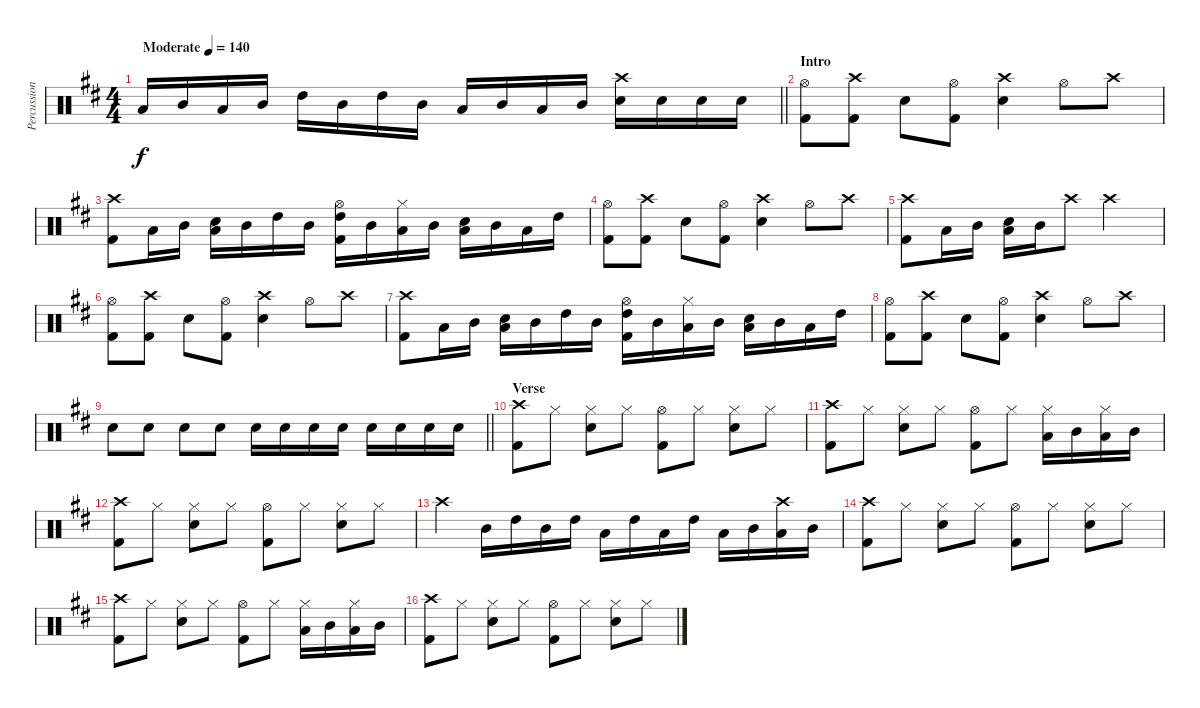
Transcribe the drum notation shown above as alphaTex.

\track ("Percussion" "Percussion") {instrument percussion}
\staff {score}
\articulation defaults
\ts (4 4)
\tempo (140 "Moderate")
\clef neutral
\barLineRight lightlight
\ks d "Low Tom (hit)".16{dy f} "Mid Tom (hit)".16 "Low Tom (hit)".16 "Mid Tom (hit)".16 "High Tom (hit)".16 "Mid Tom (hit)".16 "High Tom (hit)".16 "Mid Tom (hit)".16 "Low Tom (hit)".16 "Mid Tom (hit)".16 "Low Tom (hit)".16 "Mid Tom (hit)".16
("Crash high (hit)" "Snare (hit) 2").16 "Snare (hit) 2".16 "Snare (hit) 2".16 "Snare (hit) 2".16 |
\section ("" "Intro")
("Hi-Hat (open)" "Kick (hit) 2").8 ("Crash high (hit)" "Kick (hit) 2").8 "Snare (hit) 2".8 ("Hi-Hat (open)" "Kick (hit) 2").8 ("Crash high (hit)" "Snare (hit) 2").4 "Hi-Hat (open)".8 "Crash high (hit)".8 |
("Crash high (hit)" "Kick (hit) 2").8 "Low Tom (hit)".16 "Mid Tom (hit)".16 ("Low Tom (hit)" "Snare (hit) 2").16 "Mid Tom (hit)".16 "High Tom (hit)".16 "Mid Tom (hit)".16 ("Hi-Hat (open)" "High Tom (hit)" "Kick (hit) 2").16 "Mid Tom (hit)".16 ("Hi-Hat (closed)" "Low Tom (hit)").16 "Mid Tom (hit)".16 ("Low Tom (hit)" "Snare (hit) 2").16 "Mid Tom (hit)".16 "Low Tom (hit)".16 "High Tom (hit)".16 |
("Hi-Hat (open)" "Kick (hit) 2").8 ("Crash high (hit)" "Kick (hit) 2").8 "Snare (hit) 2".8 ("Hi-Hat (open)" "Kick (hit) 2").8 ("Crash high (hit)" "Snare (hit) 2").4 "Hi-Hat (open)".8 "Crash high (hit)".8 |
("Crash high (hit)" "Kick (hit) 2").8 "Low Tom (hit)".16 "Mid Tom (hit)".16 ("Low Tom (hit)" "Snare (hit) 2").16 "Mid Tom (hit)".16 "Crash high (hit)".8 "Crash high (hit)".2 |
("Hi-Hat (open)" "Kick (hit) 2").8 ("Crash high (hit)" "Kick (hit) 2").8 "Snare (hit) 2".8 ("Hi-Hat (open)" "Kick (hit) 2").8 ("Crash high (hit)" "Snare (hit) 2").4 "Hi-Hat (open)".8 "Crash high (hit)".8 |
("Crash high (hit)" "Kick (hit) 2").8 "Low Tom (hit)".16 "Mid Tom (hit)".16 ("Low Tom (hit)" "Snare (hit) 2").16 "Mid Tom (hit)".16 "High Tom (hit)".16 "Mid Tom (hit)".16 ("Hi-Hat (open)" "High Tom (hit)" "Kick (hit) 2").16 "Mid Tom (hit)".16 ("Hi-Hat (closed)" "Low Tom (hit)").16 "Mid Tom (hit)".16 ("Low Tom (hit)" "Snare (hit) 2").16 "Mid Tom (hit)".16 "Low Tom (hit)".16 "High Tom (hit)".16 |
("Hi-Hat (open)" "Kick (hit) 2").8 ("Crash high (hit)" "Kick (hit) 2").8 "Snare (hit) 2".8 ("Hi-Hat (open)" "Kick (hit) 2").8 ("Crash high (hit)" "Snare (hit) 2").4 "Hi-Hat (open)".8 "Crash high (hit)".8 |
\barLineRight lightlight "Snare (hit) 2".8 "Snare (hit) 2".8 "Snare (hit) 2".8 "Snare (hit) 2".8 "Snare (hit) 2".16 "Snare (hit) 2".16 "Snare (hit) 2".16 "Snare (hit) 2".16 "Snare (hit) 2".16 "Snare (hit) 2".16 "Snare (hit) 2".16 "Snare (hit) 2".16
|
\section ("" "Verse")
("Crash high (hit)" "Kick (hit) 2").8 "Hi-Hat (closed)".8 ("Hi-Hat (closed)" "Snare (hit) 2").8 "Hi-Hat (closed)".8 ("Hi-Hat (open)" "Kick (hit) 2").8 "Hi-Hat (closed)".8 ("Hi-Hat (closed)" "Snare (hit) 2").8 "Hi-Hat (closed)".8 |
("Crash high (hit)" "Kick (hit) 2").8 "Hi-Hat (closed)".8 ("Hi-Hat (closed)" "Snare (hit) 2").8 "Hi-Hat (closed)".8 ("Hi-Hat (open)" "Kick (hit) 2").8 "Hi-Hat (closed)".8 ("Hi-Hat (closed)" "Low Tom (hit)").16 "Mid Tom (hit)".16 ("Hi-Hat (closed)" "Low Tom (hit)").16 "Mid Tom (hit)".16 |
("Crash high (hit)" "Kick (hit) 2").8 "Hi-Hat (closed)".8 ("Hi-Hat (closed)" "Snare (hit) 2").8 "Hi-Hat (closed)".8 ("Hi-Hat (open)" "Kick (hit) 2").8 "Hi-Hat (closed)".8 ("Hi-Hat (closed)" "Snare (hit) 2").8 "Hi-Hat (closed)".8 |
"Crash high (hit)".4 "Mid Tom (hit)".16 "High Tom (hit)".16 "Mid Tom (hit)".16 "High Tom (hit)".16 "Low Tom (hit)".16 "High Tom (hit)".16 "Low Tom (hit)".16 "High Tom (hit)".16 "Low Tom (hit)".16 "Mid Tom (hit)".16 ("Crash high (hit)" "Low Tom (hit)").16 "Mid Tom (hit)".16 |
("Crash high (hit)" "Kick (hit) 2").8 "Hi-Hat (closed)".8 ("Hi-Hat (closed)" "Snare (hit) 2").8 "Hi-Hat (closed)".8 ("Hi-Hat (open)" "Kick (hit) 2").8 "Hi-Hat (closed)".8 ("Hi-Hat (closed)" "Snare (hit) 2").8 "Hi-Hat (closed)".8 |
("Crash high (hit)" "Kick (hit) 2").8 "Hi-Hat (closed)".8 ("Hi-Hat (closed)" "Snare (hit) 2").8 "Hi-Hat (closed)".8 ("Hi-Hat (open)" "Kick (hit) 2").8 "Hi-Hat (closed)".8 ("Hi-Hat (closed)" "Low Tom (hit)").16 "Mid Tom (hit)".16 ("Hi-Hat (closed)" "Low Tom (hit)").16 "Mid Tom (hit)".16 |
("Crash high (hit)" "Kick (hit) 2").8 "Hi-Hat (closed)".8 ("Hi-Hat (closed)" "Snare (hit) 2").8 "Hi-Hat (closed)".8 ("Hi-Hat (open)" "Kick (hit) 2").8 "Hi-Hat (closed)".8 ("Hi-Hat (closed)" "Snare (hit) 2").8 "Hi-Hat (closed)".8
